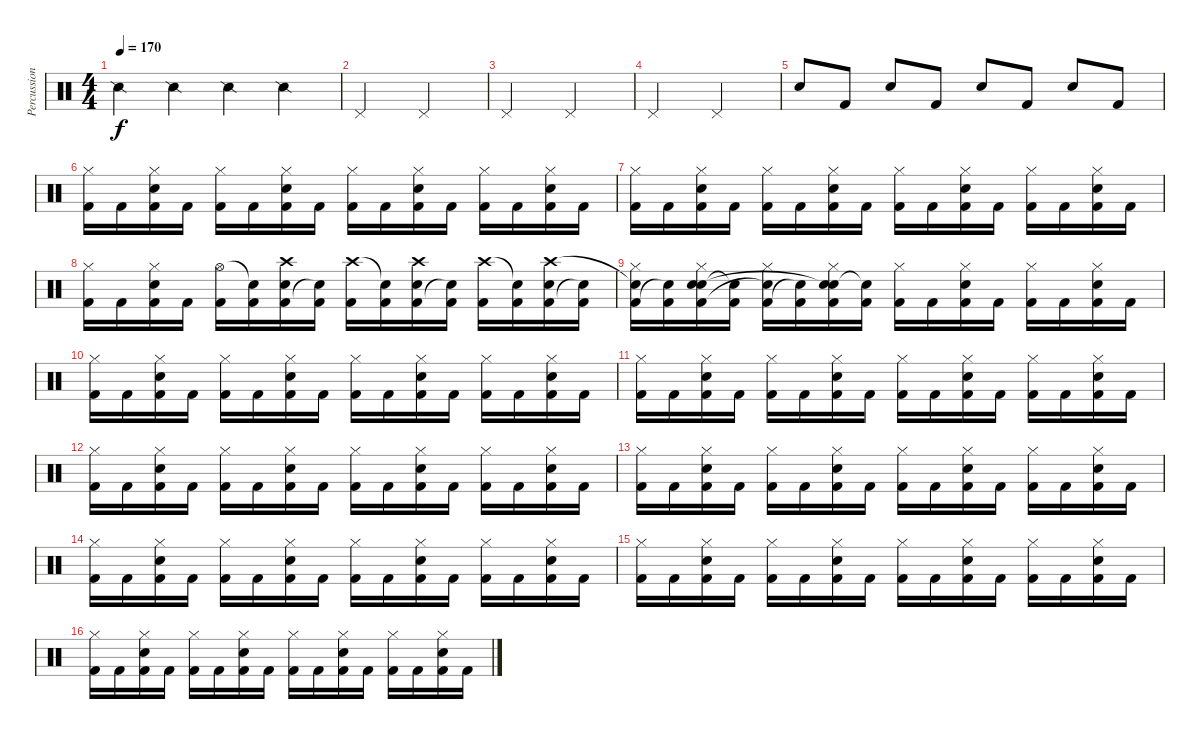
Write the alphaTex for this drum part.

\track ("Percussion" "Percussion") {instrument percussion}
\staff {score}
\articulation defaults
\ts (4 4)
\tempo 170
\clef neutral
\ks c "Snare (side stick) 2".4{dy f} "Snare (side stick) 2".4 "Snare (side stick) 2".4 "Snare (side stick) 2".4
|
"Pedal Hi-Hat (hit)".2 "Pedal Hi-Hat (hit)".2 |
"Pedal Hi-Hat (hit)".2 "Pedal Hi-Hat (hit)".2 |
"Pedal Hi-Hat (hit)".2 "Pedal Hi-Hat (hit)".2 |
"Snare (hit) 2".8 "Kick (hit) 2".8 "Snare (hit) 2".8 "Kick (hit) 2".8 "Snare (hit) 2".8 "Kick (hit) 2".8 "Snare (hit) 2".8 "Kick (hit) 2".8 |
("Hi-Hat (closed)" "Kick (hit) 2").16 "Kick (hit) 2".16 ("Hi-Hat (closed)" "Snare (hit) 2" "Kick (hit) 2").16 "Kick (hit) 2".16 ("Hi-Hat (closed)" "Kick (hit) 2").16 "Kick (hit) 2".16 ("Hi-Hat (closed)" "Snare (hit) 2" "Kick (hit) 2").16 "Kick (hit) 2".16 ("Hi-Hat (closed)" "Kick (hit) 2").16 "Kick (hit) 2".16 ("Hi-Hat (closed)" "Snare (hit) 2" "Kick (hit) 2").16 "Kick (hit) 2".16 ("Hi-Hat (closed)" "Kick (hit) 2").16 "Kick (hit) 2".16 ("Hi-Hat (closed)" "Snare (hit) 2" "Kick (hit) 2").16 "Kick (hit) 2".16 |
("Hi-Hat (closed)" "Kick (hit) 2").16 "Kick (hit) 2".16 ("Hi-Hat (closed)" "Snare (hit) 2" "Kick (hit) 2").16 "Kick (hit) 2".16 ("Hi-Hat (closed)" "Kick (hit) 2").16 "Kick (hit) 2".16 ("Hi-Hat (closed)" "Snare (hit) 2" "Kick (hit) 2").16 "Kick (hit) 2".16 ("Hi-Hat (closed)" "Kick (hit) 2").16 "Kick (hit) 2".16 ("Hi-Hat (closed)" "Snare (hit) 2" "Kick (hit) 2").16 "Kick (hit) 2".16 ("Hi-Hat (closed)" "Kick (hit) 2").16 "Kick (hit) 2".16 ("Hi-Hat (closed)" "Snare (hit) 2" "Kick (hit) 2").16 "Kick (hit) 2".16 |
("Hi-Hat (closed)" "Kick (hit) 2").16 "Kick (hit) 2".16 ("Hi-Hat (closed)" "Snare (hit) 2" "Kick (hit) 2").16 "Kick (hit) 2".16 ("Kick (hit) 2" "Hi-Hat (open)").16 ("Kick (hit) 2" "Snare (hit)"{t}).16 ("Snare (hit) 2" "Kick (hit) 2" "Crash high (hit)").16 ("Kick (hit) 2" "Snare (hit)"{t}).16 ("Kick (hit) 2" "Crash high (hit)").16 ("Kick (hit) 2" "Snare (hit)"{t}).16 ("Snare (hit) 2" "Kick (hit) 2" "Crash high (hit)").16 ("Kick (hit) 2" "Snare (hit)"{t}).16 ("Kick (hit) 2" "Crash high (hit)").16 ("Kick (hit) 2" "Snare (hit)"{t}).16 ("Snare (hit) 2" "Kick (hit) 2" "Crash high (hit)").16 ("Kick (hit) 2" "Snare (hit)"{t}).16 |
("Hi-Hat (closed)" "Kick (hit) 2" "Snare (hit)"{t}).16 ("Kick (hit) 2" "Snare (hit)"{t}).16 ("Hi-Hat (closed)" "Snare (hit) 2" "Kick (hit) 2" "Snare (hit)").16 ("Kick (hit) 2" "Snare (hit)"{t}).16 ("Hi-Hat (closed)" "Kick (hit) 2" "Snare (hit)"{t}).16 ("Kick (hit) 2" "Snare (hit)"{t}).16 ("Hi-Hat (closed)" "Snare (hit) 2" "Kick (hit) 2" "Snare (hit)"{t}).16 ("Kick (hit) 2" "Snare (hit)"{t}).16 ("Hi-Hat (closed)" "Kick (hit) 2").16 "Kick (hit) 2".16 ("Hi-Hat (closed)" "Snare (hit) 2" "Kick (hit) 2").16 "Kick (hit) 2".16 ("Hi-Hat (closed)" "Kick (hit) 2").16 "Kick (hit) 2".16 ("Hi-Hat (closed)" "Snare (hit) 2" "Kick (hit) 2").16 "Kick (hit) 2".16 |
("Hi-Hat (closed)" "Kick (hit) 2").16 "Kick (hit) 2".16 ("Hi-Hat (closed)" "Snare (hit) 2" "Kick (hit) 2").16 "Kick (hit) 2".16 ("Hi-Hat (closed)" "Kick (hit) 2").16 "Kick (hit) 2".16 ("Hi-Hat (closed)" "Snare (hit) 2" "Kick (hit) 2").16 "Kick (hit) 2".16 ("Hi-Hat (closed)" "Kick (hit) 2").16 "Kick (hit) 2".16 ("Hi-Hat (closed)" "Snare (hit) 2" "Kick (hit) 2").16 "Kick (hit) 2".16 ("Hi-Hat (closed)" "Kick (hit) 2").16 "Kick (hit) 2".16 ("Hi-Hat (closed)" "Snare (hit) 2" "Kick (hit) 2").16 "Kick (hit) 2".16 |
("Hi-Hat (closed)" "Kick (hit) 2").16 "Kick (hit) 2".16 ("Hi-Hat (closed)" "Snare (hit) 2" "Kick (hit) 2").16 "Kick (hit) 2".16 ("Hi-Hat (closed)" "Kick (hit) 2").16 "Kick (hit) 2".16 ("Hi-Hat (closed)" "Snare (hit) 2" "Kick (hit) 2").16 "Kick (hit) 2".16 ("Hi-Hat (closed)" "Kick (hit) 2").16 "Kick (hit) 2".16 ("Hi-Hat (closed)" "Snare (hit) 2" "Kick (hit) 2").16 "Kick (hit) 2".16 ("Hi-Hat (closed)" "Kick (hit) 2").16 "Kick (hit) 2".16 ("Hi-Hat (closed)" "Snare (hit) 2" "Kick (hit) 2").16 "Kick (hit) 2".16 |
("Hi-Hat (closed)" "Kick (hit) 2").16 "Kick (hit) 2".16 ("Hi-Hat (closed)" "Snare (hit) 2" "Kick (hit) 2").16 "Kick (hit) 2".16 ("Hi-Hat (closed)" "Kick (hit) 2").16 "Kick (hit) 2".16 ("Hi-Hat (closed)" "Snare (hit) 2" "Kick (hit) 2").16 "Kick (hit) 2".16 ("Hi-Hat (closed)" "Kick (hit) 2").16 "Kick (hit) 2".16 ("Hi-Hat (closed)" "Snare (hit) 2" "Kick (hit) 2").16 "Kick (hit) 2".16 ("Hi-Hat (closed)" "Kick (hit) 2").16 "Kick (hit) 2".16 ("Hi-Hat (closed)" "Snare (hit) 2" "Kick (hit) 2").16 "Kick (hit) 2".16 |
("Hi-Hat (closed)" "Kick (hit) 2").16 "Kick (hit) 2".16 ("Hi-Hat (closed)" "Snare (hit) 2" "Kick (hit) 2").16 "Kick (hit) 2".16 ("Hi-Hat (closed)" "Kick (hit) 2").16 "Kick (hit) 2".16 ("Hi-Hat (closed)" "Snare (hit) 2" "Kick (hit) 2").16 "Kick (hit) 2".16 ("Hi-Hat (closed)" "Kick (hit) 2").16 "Kick (hit) 2".16 ("Hi-Hat (closed)" "Snare (hit) 2" "Kick (hit) 2").16 "Kick (hit) 2".16 ("Hi-Hat (closed)" "Kick (hit) 2").16 "Kick (hit) 2".16 ("Hi-Hat (closed)" "Snare (hit) 2" "Kick (hit) 2").16 "Kick (hit) 2".16 |
("Hi-Hat (closed)" "Kick (hit) 2").16 "Kick (hit) 2".16 ("Hi-Hat (closed)" "Snare (hit) 2" "Kick (hit) 2").16 "Kick (hit) 2".16 ("Hi-Hat (closed)" "Kick (hit) 2").16 "Kick (hit) 2".16 ("Hi-Hat (closed)" "Snare (hit) 2" "Kick (hit) 2").16 "Kick (hit) 2".16 ("Hi-Hat (closed)" "Kick (hit) 2").16 "Kick (hit) 2".16 ("Hi-Hat (closed)" "Snare (hit) 2" "Kick (hit) 2").16 "Kick (hit) 2".16 ("Hi-Hat (closed)" "Kick (hit) 2").16 "Kick (hit) 2".16 ("Hi-Hat (closed)" "Snare (hit) 2" "Kick (hit) 2").16 "Kick (hit) 2".16 |
("Hi-Hat (closed)" "Kick (hit) 2").16 "Kick (hit) 2".16 ("Hi-Hat (closed)" "Snare (hit) 2" "Kick (hit) 2").16 "Kick (hit) 2".16 ("Hi-Hat (closed)" "Kick (hit) 2").16 "Kick (hit) 2".16 ("Hi-Hat (closed)" "Snare (hit) 2" "Kick (hit) 2").16 "Kick (hit) 2".16 ("Hi-Hat (closed)" "Kick (hit) 2").16 "Kick (hit) 2".16 ("Hi-Hat (closed)" "Snare (hit) 2" "Kick (hit) 2").16 "Kick (hit) 2".16 ("Hi-Hat (closed)" "Kick (hit) 2").16 "Kick (hit) 2".16 ("Hi-Hat (closed)" "Snare (hit) 2" "Kick (hit) 2").16 "Kick (hit) 2".16 |
("Hi-Hat (closed)" "Kick (hit) 2").16 "Kick (hit) 2".16 ("Hi-Hat (closed)" "Snare (hit) 2" "Kick (hit) 2").16 "Kick (hit) 2".16 ("Hi-Hat (closed)" "Kick (hit) 2").16 "Kick (hit) 2".16 ("Hi-Hat (closed)" "Snare (hit) 2" "Kick (hit) 2").16 "Kick (hit) 2".16 ("Hi-Hat (closed)" "Kick (hit) 2").16 "Kick (hit) 2".16 ("Hi-Hat (closed)" "Snare (hit) 2" "Kick (hit) 2").16 "Kick (hit) 2".16 ("Hi-Hat (closed)" "Kick (hit) 2").16 "Kick (hit) 2".16 ("Hi-Hat (closed)" "Snare (hit) 2" "Kick (hit) 2").16 "Kick (hit) 2".16
